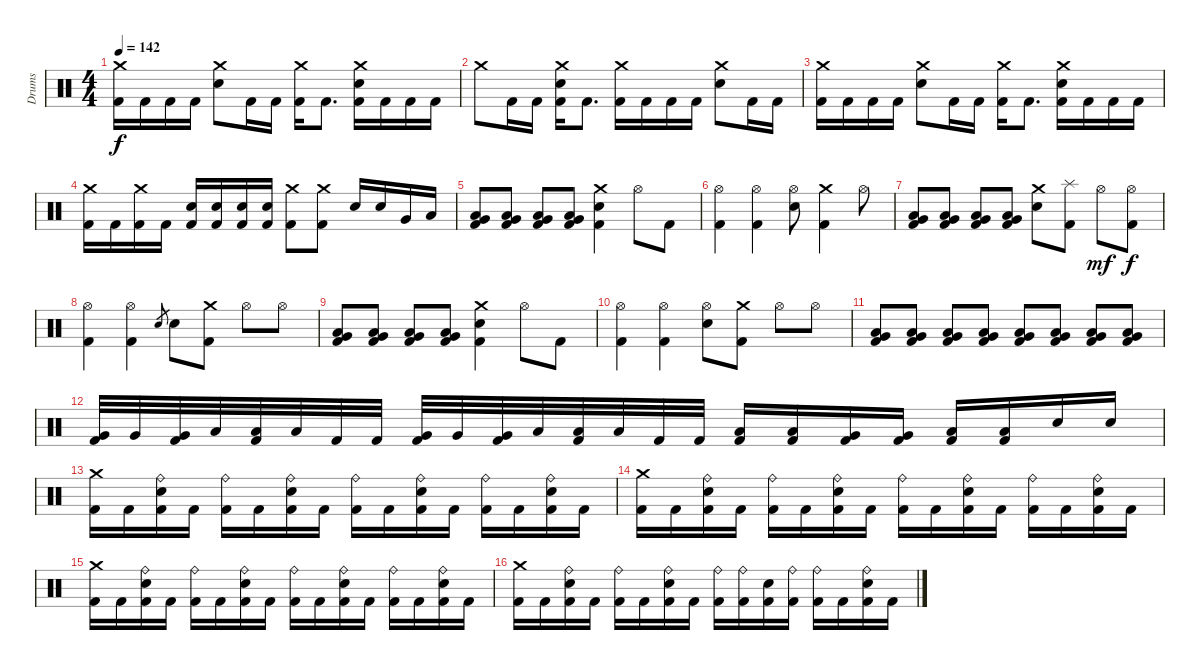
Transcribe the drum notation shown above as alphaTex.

\track ("Drums" "Drums") {instrument percussion}
\staff {score}
\articulation defaults
\ts (4 4)
\tempo 142
\clef neutral
\ks c
("Crash medium (hit)" "Kick (hit) 2").16{dy f} "Kick (hit) 2".16 "Kick (hit) 2".16 "Kick (hit) 2".16 ("Crash medium (hit)" "Electric Snare (hit)").8 "Kick (hit) 2".16 "Kick (hit) 2".16 ("Crash medium (hit)" "Kick (hit) 2").16 "Kick (hit) 2".8{d} ("Crash medium (hit)" "Electric Snare (hit)" "Kick (hit) 2").16 "Kick (hit) 2".16 "Kick (hit) 2".16 "Kick (hit) 2".16 |
"Crash medium (hit)".8 "Kick (hit) 2".16 "Kick (hit) 2".16 ("Crash medium (hit)" "Electric Snare (hit)" "Kick (hit) 2").16 "Kick (hit) 2".8{d} ("Crash medium (hit)" "Kick (hit) 2").16 "Kick (hit) 2".16 "Kick (hit) 2".16 "Kick (hit) 2".16 ("Crash medium (hit)" "Electric Snare (hit)").8 "Kick (hit) 2".16 "Kick (hit) 2".16 |
("Crash medium (hit)" "Kick (hit) 2").16 "Kick (hit) 2".16 "Kick (hit) 2".16 "Kick (hit) 2".16 ("Crash medium (hit)" "Electric Snare (hit)").8 "Kick (hit) 2".16 "Kick (hit) 2".16 ("Crash medium (hit)" "Kick (hit) 2").16 "Kick (hit) 2".8{d} ("Crash medium (hit)" "Electric Snare (hit)" "Kick (hit) 2").16 "Kick (hit) 2".16 "Kick (hit) 2".16 "Kick (hit) 2".16 |
("Crash medium (hit)" "Kick (hit) 2").16 "Kick (hit) 2".16 ("Crash medium (hit)" "Kick (hit) 2").16 "Kick (hit) 2".16 ("Electric Snare (hit)" "Kick (hit) 2").16 ("Electric Snare (hit)" "Kick (hit) 2").16 ("Electric Snare (hit)" "Kick (hit) 2").16 ("Electric Snare (hit)" "Kick (hit) 2").16 ("Crash medium (hit)" "Kick (hit) 2").8 ("Crash medium (hit)" "Kick (hit) 2").8 "Electric Snare (hit)".16 "Electric Snare (hit)".16 "Very Low Tom (hit)".16 "Low Floor Tom (hit)".16 |
("Low Floor Tom (hit)" "Very Low Tom (hit)" "Kick (hit) 2").8 ("Low Floor Tom (hit)" "Very Low Tom (hit)" "Kick (hit) 2").8 ("Low Floor Tom (hit)" "Very Low Tom (hit)" "Kick (hit) 2").8 ("Low Floor Tom (hit)" "Very Low Tom (hit)" "Kick (hit) 2").8 ("Crash medium (hit)" "Electric Snare (hit)" "Kick (hit) 2").4 "Hi-Hat (open)".8 "Kick (hit) 2".8 |
("Hi-Hat (open)" "Kick (hit) 2").4 ("Hi-Hat (open)" "Kick (hit) 2").4 ("Hi-Hat (open)" "Electric Snare (hit)").8 ("Crash medium (hit)" "Kick (hit) 2").4 "Hi-Hat (open)".8 |
("Low Floor Tom (hit)" "Very Low Tom (hit)" "Kick (hit) 2").8 ("Low Floor Tom (hit)" "Very Low Tom (hit)" "Kick (hit) 2").8 ("Low Floor Tom (hit)" "Very Low Tom (hit)" "Kick (hit) 2").8 ("Low Floor Tom (hit)" "Very Low Tom (hit)" "Kick (hit) 2").8 ("Crash medium (hit)" "Electric Snare (hit)").8 ("Splash (hit)" "Kick (hit) 2").8 "Hi-Hat (open)".8{dy mf} ("Hi-Hat (open)" "Kick (hit) 2").8{dy f} |
("Hi-Hat (open)" "Kick (hit) 2").4 ("Hi-Hat (open)" "Kick (hit) 2").4 "Electric Snare (hit)".8{gr} "Electric Snare (hit)".8 ("Crash medium (hit)" "Kick (hit) 2").8 "Hi-Hat (open)".8 "Hi-Hat (open)".8 |
("Low Floor Tom (hit)" "Very Low Tom (hit)" "Kick (hit) 2").8 ("Low Floor Tom (hit)" "Very Low Tom (hit)" "Kick (hit) 2").8 ("Low Floor Tom (hit)" "Very Low Tom (hit)" "Kick (hit) 2").8 ("Low Floor Tom (hit)" "Very Low Tom (hit)" "Kick (hit) 2").8 ("Crash medium (hit)" "Electric Snare (hit)" "Kick (hit) 2").4 "Hi-Hat (open)".8 "Kick (hit) 2".8 |
("Hi-Hat (open)" "Kick (hit) 2").4 ("Hi-Hat (open)" "Kick (hit) 2").4 ("Hi-Hat (open)" "Electric Snare (hit)").8 ("Crash medium (hit)" "Kick (hit) 2").8 "Hi-Hat (open)".8 "Hi-Hat (open)".8 |
("Low Floor Tom (hit)" "Very Low Tom (hit)" "Kick (hit) 2").8 ("Low Floor Tom (hit)" "Very Low Tom (hit)" "Kick (hit) 2").8 ("Low Floor Tom (hit)" "Very Low Tom (hit)" "Kick (hit) 2").8 ("Low Floor Tom (hit)" "Very Low Tom (hit)" "Kick (hit) 2").8 ("Low Floor Tom (hit)" "Very Low Tom (hit)" "Kick (hit) 2").8 ("Low Floor Tom (hit)" "Very Low Tom (hit)" "Kick (hit) 2").8 ("Low Floor Tom (hit)" "Very Low Tom (hit)" "Kick (hit) 2").8 ("Low Floor Tom (hit)" "Very Low Tom (hit)" "Kick (hit) 2").8 |
("Very Low Tom (hit)" "Kick (hit) 2").32 "Very Low Tom (hit)".32 ("Very Low Tom (hit)" "Kick (hit) 2").32 "Low Floor Tom (hit)".32 ("Low Floor Tom (hit)" "Kick (hit) 2").32 "Low Floor Tom (hit)".32 "Kick (hit) 2".32 "Kick (hit) 2".32 ("Very Low Tom (hit)" "Kick (hit) 2").32 "Very Low Tom (hit)".32 ("Very Low Tom (hit)" "Kick (hit) 2").32 "Low Floor Tom (hit)".32 ("Low Floor Tom (hit)" "Kick (hit) 2").32 "Low Floor Tom (hit)".32 "Kick (hit) 2".32 "Kick (hit) 2".32 ("Low Tom (hit)" "Kick (hit) 2").16 ("Low Tom (hit)" "Kick (hit) 2").16 ("Very Low Tom (hit)" "Kick (hit) 2").16 ("Very Low Tom (hit)" "Kick (hit) 2").16 ("Low Floor Tom (hit)" "Kick (hit) 2").16 ("Low Floor Tom (hit)" "Kick (hit) 2").16 "Electric Snare (hit)".16 "Electric Snare (hit)".16 |
("Crash medium (hit)" "Kick (hit) 2").16 "Kick (hit) 2".16 ("Ride (bell)" "Electric Snare (hit)" "Kick (hit) 2").16 "Kick (hit) 2".16 ("Ride (bell)" "Kick (hit) 2").16 "Kick (hit) 2".16 ("Ride (bell)" "Electric Snare (hit)" "Kick (hit) 2").16 "Kick (hit) 2".16 ("Ride (bell)" "Kick (hit) 2").16 "Kick (hit) 2".16 ("Ride (bell)" "Electric Snare (hit)" "Kick (hit) 2").16 "Kick (hit) 2".16 ("Ride (bell)" "Kick (hit) 2").16 "Kick (hit) 2".16 ("Ride (bell)" "Electric Snare (hit)" "Kick (hit) 2").16 "Kick (hit) 2".16 |
("Crash medium (hit)" "Kick (hit) 2").16 "Kick (hit) 2".16 ("Ride (bell)" "Electric Snare (hit)" "Kick (hit) 2").16 "Kick (hit) 2".16 ("Ride (bell)" "Kick (hit) 2").16 "Kick (hit) 2".16 ("Ride (bell)" "Electric Snare (hit)" "Kick (hit) 2").16 "Kick (hit) 2".16 ("Ride (bell)" "Kick (hit) 2").16 "Kick (hit) 2".16 ("Ride (bell)" "Electric Snare (hit)" "Kick (hit) 2").16 "Kick (hit) 2".16 ("Ride (bell)" "Kick (hit) 2").16 "Kick (hit) 2".16 ("Ride (bell)" "Electric Snare (hit)" "Kick (hit) 2").16 "Kick (hit) 2".16 |
("Crash medium (hit)" "Kick (hit) 2").16 "Kick (hit) 2".16 ("Ride (bell)" "Electric Snare (hit)" "Kick (hit) 2").16 "Kick (hit) 2".16 ("Ride (bell)" "Kick (hit) 2").16 "Kick (hit) 2".16 ("Ride (bell)" "Electric Snare (hit)" "Kick (hit) 2").16 "Kick (hit) 2".16 ("Ride (bell)" "Kick (hit) 2").16 "Kick (hit) 2".16 ("Ride (bell)" "Electric Snare (hit)" "Kick (hit) 2").16 "Kick (hit) 2".16 ("Ride (bell)" "Kick (hit) 2").16 "Kick (hit) 2".16 ("Ride (bell)" "Electric Snare (hit)" "Kick (hit) 2").16 "Kick (hit) 2".16 |
("Crash medium (hit)" "Kick (hit) 2").16 "Kick (hit) 2".16 ("Ride (bell)" "Electric Snare (hit)" "Kick (hit) 2").16 "Kick (hit) 2".16 ("Ride (bell)" "Kick (hit) 2").16 "Kick (hit) 2".16 ("Ride (bell)" "Electric Snare (hit)" "Kick (hit) 2").16 "Kick (hit) 2".16 ("Ride (bell)" "Kick (hit) 2").16 ("Ride (bell)" "Kick (hit) 2").16 ("Electric Snare (hit)" "Kick (hit) 2").16 ("Ride (bell)" "Kick (hit) 2").16 ("Ride (bell)" "Kick (hit) 2").16 "Kick (hit) 2".16 ("Ride (bell)" "Electric Snare (hit)" "Kick (hit) 2").16 "Kick (hit) 2".16
